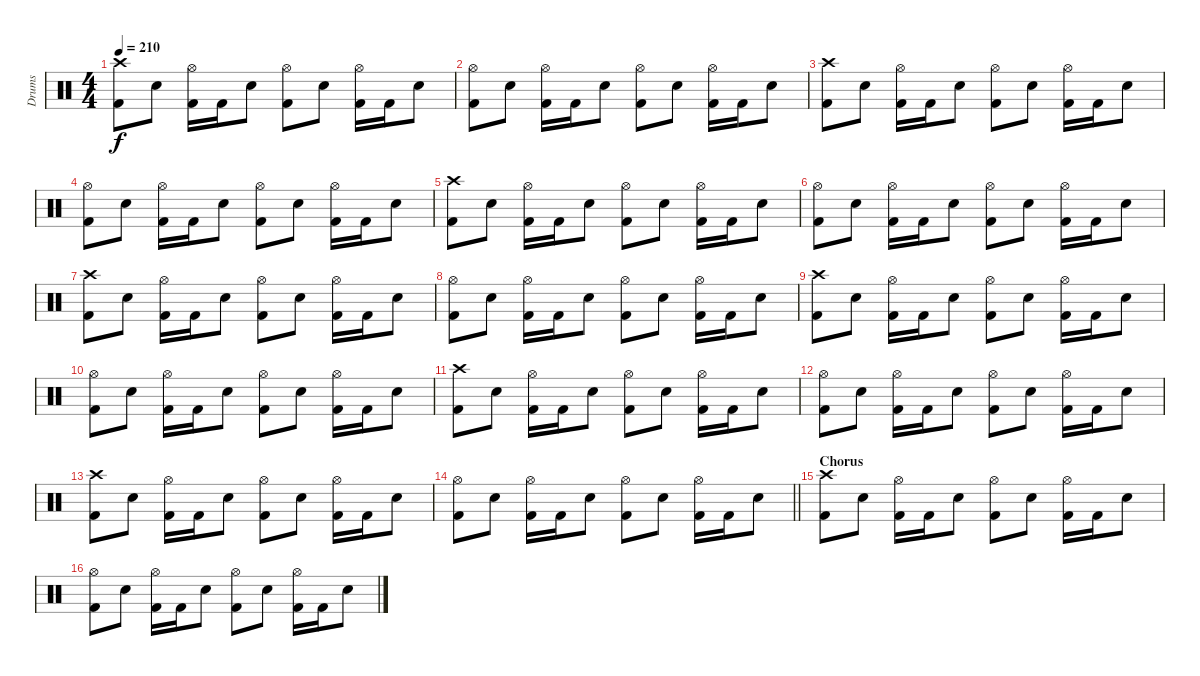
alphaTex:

\track ("Drums" "Drums") {instrument percussion}
\staff {score}
\articulation defaults
\ts (4 4)
\tempo 210
\clef neutral
\ks c
("Crash high (hit)" "Kick (hit) 2").8{dy f} "Snare (hit) 2".8 ("Hi-Hat (open)" "Kick (hit) 2").16 "Kick (hit) 2".16 "Snare (hit) 2".8 ("Hi-Hat (open)" "Kick (hit) 2").8 "Snare (hit) 2".8 ("Hi-Hat (open)" "Kick (hit) 2").16 "Kick (hit) 2".16 "Snare (hit) 2".8 |
("Hi-Hat (open)" "Kick (hit) 2").8 "Snare (hit) 2".8 ("Hi-Hat (open)" "Kick (hit) 2").16 "Kick (hit) 2".16 "Snare (hit) 2".8 ("Hi-Hat (open)" "Kick (hit) 2").8 "Snare (hit) 2".8 ("Hi-Hat (open)" "Kick (hit) 2").16 "Kick (hit) 2".16 "Snare (hit) 2".8 |
("Crash high (hit)" "Kick (hit) 2").8 "Snare (hit) 2".8 ("Hi-Hat (open)" "Kick (hit) 2").16 "Kick (hit) 2".16 "Snare (hit) 2".8 ("Hi-Hat (open)" "Kick (hit) 2").8 "Snare (hit) 2".8 ("Hi-Hat (open)" "Kick (hit) 2").16 "Kick (hit) 2".16 "Snare (hit) 2".8 |
("Hi-Hat (open)" "Kick (hit) 2").8 "Snare (hit) 2".8 ("Hi-Hat (open)" "Kick (hit) 2").16 "Kick (hit) 2".16 "Snare (hit) 2".8 ("Hi-Hat (open)" "Kick (hit) 2").8 "Snare (hit) 2".8 ("Hi-Hat (open)" "Kick (hit) 2").16 "Kick (hit) 2".16 "Snare (hit) 2".8 |
("Crash high (hit)" "Kick (hit) 2").8 "Snare (hit) 2".8 ("Hi-Hat (open)" "Kick (hit) 2").16 "Kick (hit) 2".16 "Snare (hit) 2".8 ("Hi-Hat (open)" "Kick (hit) 2").8 "Snare (hit) 2".8 ("Hi-Hat (open)" "Kick (hit) 2").16 "Kick (hit) 2".16 "Snare (hit) 2".8 |
("Hi-Hat (open)" "Kick (hit) 2").8 "Snare (hit) 2".8 ("Hi-Hat (open)" "Kick (hit) 2").16 "Kick (hit) 2".16 "Snare (hit) 2".8 ("Hi-Hat (open)" "Kick (hit) 2").8 "Snare (hit) 2".8 ("Hi-Hat (open)" "Kick (hit) 2").16 "Kick (hit) 2".16 "Snare (hit) 2".8 |
("Crash high (hit)" "Kick (hit) 2").8 "Snare (hit) 2".8 ("Hi-Hat (open)" "Kick (hit) 2").16 "Kick (hit) 2".16 "Snare (hit) 2".8 ("Hi-Hat (open)" "Kick (hit) 2").8 "Snare (hit) 2".8 ("Hi-Hat (open)" "Kick (hit) 2").16 "Kick (hit) 2".16 "Snare (hit) 2".8 |
("Hi-Hat (open)" "Kick (hit) 2").8 "Snare (hit) 2".8 ("Hi-Hat (open)" "Kick (hit) 2").16 "Kick (hit) 2".16 "Snare (hit) 2".8 ("Hi-Hat (open)" "Kick (hit) 2").8 "Snare (hit) 2".8 ("Hi-Hat (open)" "Kick (hit) 2").16 "Kick (hit) 2".16 "Snare (hit) 2".8 |
("Crash high (hit)" "Kick (hit) 2").8 "Snare (hit) 2".8 ("Hi-Hat (open)" "Kick (hit) 2").16 "Kick (hit) 2".16 "Snare (hit) 2".8 ("Hi-Hat (open)" "Kick (hit) 2").8 "Snare (hit) 2".8 ("Hi-Hat (open)" "Kick (hit) 2").16 "Kick (hit) 2".16 "Snare (hit) 2".8 |
("Hi-Hat (open)" "Kick (hit) 2").8 "Snare (hit) 2".8 ("Hi-Hat (open)" "Kick (hit) 2").16 "Kick (hit) 2".16 "Snare (hit) 2".8 ("Hi-Hat (open)" "Kick (hit) 2").8 "Snare (hit) 2".8 ("Hi-Hat (open)" "Kick (hit) 2").16 "Kick (hit) 2".16 "Snare (hit) 2".8 |
("Crash high (hit)" "Kick (hit) 2").8 "Snare (hit) 2".8 ("Hi-Hat (open)" "Kick (hit) 2").16 "Kick (hit) 2".16 "Snare (hit) 2".8 ("Hi-Hat (open)" "Kick (hit) 2").8 "Snare (hit) 2".8 ("Hi-Hat (open)" "Kick (hit) 2").16 "Kick (hit) 2".16 "Snare (hit) 2".8 |
("Hi-Hat (open)" "Kick (hit) 2").8 "Snare (hit) 2".8 ("Hi-Hat (open)" "Kick (hit) 2").16 "Kick (hit) 2".16 "Snare (hit) 2".8 ("Hi-Hat (open)" "Kick (hit) 2").8 "Snare (hit) 2".8 ("Hi-Hat (open)" "Kick (hit) 2").16 "Kick (hit) 2".16 "Snare (hit) 2".8 |
("Crash high (hit)" "Kick (hit) 2").8 "Snare (hit) 2".8 ("Hi-Hat (open)" "Kick (hit) 2").16 "Kick (hit) 2".16 "Snare (hit) 2".8 ("Hi-Hat (open)" "Kick (hit) 2").8 "Snare (hit) 2".8 ("Hi-Hat (open)" "Kick (hit) 2").16 "Kick (hit) 2".16 "Snare (hit) 2".8 |
\barLineRight lightlight
("Hi-Hat (open)" "Kick (hit) 2").8 "Snare (hit) 2".8 ("Hi-Hat (open)" "Kick (hit) 2").16 "Kick (hit) 2".16 "Snare (hit) 2".8 ("Hi-Hat (open)" "Kick (hit) 2").8 "Snare (hit) 2".8 ("Hi-Hat (open)" "Kick (hit) 2").16 "Kick (hit) 2".16 "Snare (hit) 2".8 |
\section ("" "Chorus")
("Crash high (hit)" "Kick (hit) 2").8 "Snare (hit) 2".8 ("Hi-Hat (open)" "Kick (hit) 2").16 "Kick (hit) 2".16 "Snare (hit) 2".8 ("Hi-Hat (open)" "Kick (hit) 2").8 "Snare (hit) 2".8 ("Hi-Hat (open)" "Kick (hit) 2").16 "Kick (hit) 2".16 "Snare (hit) 2".8 |
("Hi-Hat (open)" "Kick (hit) 2").8 "Snare (hit) 2".8 ("Hi-Hat (open)" "Kick (hit) 2").16 "Kick (hit) 2".16 "Snare (hit) 2".8 ("Hi-Hat (open)" "Kick (hit) 2").8 "Snare (hit) 2".8 ("Hi-Hat (open)" "Kick (hit) 2").16 "Kick (hit) 2".16 "Snare (hit) 2".8
